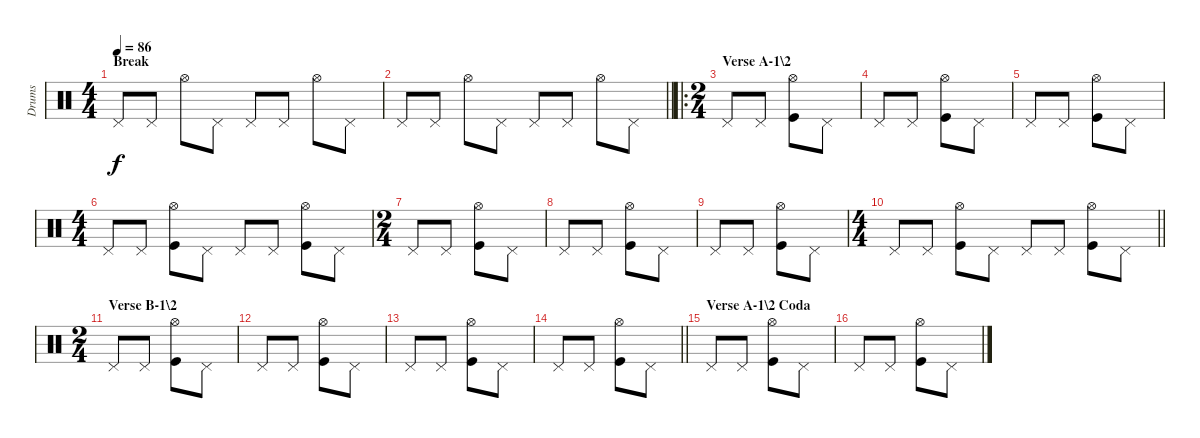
\track ("Drums" "Drums") {instrument percussion}
\staff {score}
\articulation defaults
\ts (4 4)
\section ("" "Break")
\tempo 86
\clef neutral
\ks c "Pedal Hi-Hat (hit)".8{dy f} "Pedal Hi-Hat (hit)".8 "Hi-Hat (open)".8 "Pedal Hi-Hat (hit)".8 "Pedal Hi-Hat (hit)".8 "Pedal Hi-Hat (hit)".8 "Hi-Hat (open)".8 "Pedal Hi-Hat (hit)".8
|
\barLineRight lightlight "Pedal Hi-Hat (hit)".8 "Pedal Hi-Hat (hit)".8 "Hi-Hat (open)".8 "Pedal Hi-Hat (hit)".8 "Pedal Hi-Hat (hit)".8 "Pedal Hi-Hat (hit)".8 "Hi-Hat (open)".8 "Pedal Hi-Hat (hit)".8
|
\ro
\ts (2 4)
\section ("" "Verse A-1\\2")
"Pedal Hi-Hat (hit)".8 "Pedal Hi-Hat (hit)".8 ("Hi-Hat (open)" "Kick (hit)").8 "Pedal Hi-Hat (hit)".8 |
"Pedal Hi-Hat (hit)".8 "Pedal Hi-Hat (hit)".8 ("Hi-Hat (open)" "Kick (hit)").8 "Pedal Hi-Hat (hit)".8 |
"Pedal Hi-Hat (hit)".8 "Pedal Hi-Hat (hit)".8 ("Hi-Hat (open)" "Kick (hit)").8 "Pedal Hi-Hat (hit)".8 |
\ts (4 4)
"Pedal Hi-Hat (hit)".8 "Pedal Hi-Hat (hit)".8 ("Hi-Hat (open)" "Kick (hit)").8 "Pedal Hi-Hat (hit)".8 "Pedal Hi-Hat (hit)".8 "Pedal Hi-Hat (hit)".8 ("Hi-Hat (open)" "Kick (hit)").8 "Pedal Hi-Hat (hit)".8 |
\ts (2 4)
"Pedal Hi-Hat (hit)".8 "Pedal Hi-Hat (hit)".8 ("Hi-Hat (open)" "Kick (hit)").8 "Pedal Hi-Hat (hit)".8 |
"Pedal Hi-Hat (hit)".8 "Pedal Hi-Hat (hit)".8 ("Hi-Hat (open)" "Kick (hit)").8 "Pedal Hi-Hat (hit)".8 |
"Pedal Hi-Hat (hit)".8 "Pedal Hi-Hat (hit)".8 ("Hi-Hat (open)" "Kick (hit)").8 "Pedal Hi-Hat (hit)".8 |
\ts (4 4)
\barLineRight lightlight "Pedal Hi-Hat (hit)".8 "Pedal Hi-Hat (hit)".8
("Hi-Hat (open)" "Kick (hit)").8 "Pedal Hi-Hat (hit)".8 "Pedal Hi-Hat (hit)".8 "Pedal Hi-Hat (hit)".8 ("Hi-Hat (open)" "Kick (hit)").8 "Pedal Hi-Hat (hit)".8 |
\ts (2 4)
\section ("" "Verse B-1\\2")
"Pedal Hi-Hat (hit)".8 "Pedal Hi-Hat (hit)".8 ("Hi-Hat (open)" "Kick (hit)").8 "Pedal Hi-Hat (hit)".8 |
"Pedal Hi-Hat (hit)".8 "Pedal Hi-Hat (hit)".8 ("Hi-Hat (open)" "Kick (hit)").8 "Pedal Hi-Hat (hit)".8 |
"Pedal Hi-Hat (hit)".8 "Pedal Hi-Hat (hit)".8 ("Hi-Hat (open)" "Kick (hit)").8 "Pedal Hi-Hat (hit)".8 |
\barLineRight lightlight "Pedal Hi-Hat (hit)".8 "Pedal Hi-Hat (hit)".8
("Hi-Hat (open)" "Kick (hit)").8 "Pedal Hi-Hat (hit)".8 |
\section ("" "Verse A-1\\2 Coda")
"Pedal Hi-Hat (hit)".8 "Pedal Hi-Hat (hit)".8 ("Hi-Hat (open)" "Kick (hit)").8 "Pedal Hi-Hat (hit)".8 |
"Pedal Hi-Hat (hit)".8 "Pedal Hi-Hat (hit)".8 ("Hi-Hat (open)" "Kick (hit)").8 "Pedal Hi-Hat (hit)".8
